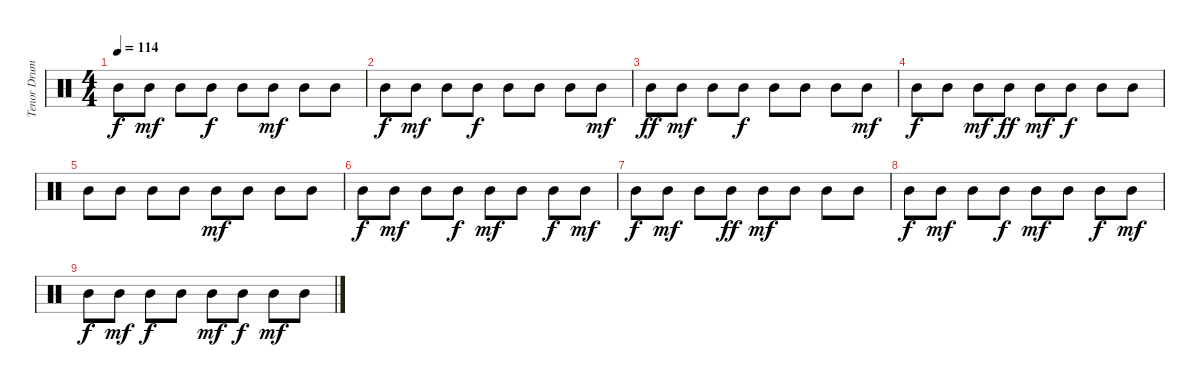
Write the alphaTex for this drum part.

\track ("Tenor Drum" "Tenor Drum") {instrument percussion}
\staff {score}
\articulation defaults
\ts (4 4)
\tempo 114
\clef neutral
\ks c "Mid Tom (hit)".8{dy f} "Mid Tom (hit)".8{dy mf} "Mid Tom (hit)".8 "Mid Tom (hit)".8{dy f} "Mid Tom (hit)".8 "Mid Tom (hit)".8{dy mf} "Mid Tom (hit)".8 "Mid Tom (hit)".8
|
"Mid Tom (hit)".8{dy f} "Mid Tom (hit)".8{dy mf} "Mid Tom (hit)".8 "Mid Tom (hit)".8{dy f} "Mid Tom (hit)".8 "Mid Tom (hit)".8 "Mid Tom (hit)".8 "Mid Tom (hit)".8{dy mf} |
"Mid Tom (hit)".8{dy ff} "Mid Tom (hit)".8{dy mf} "Mid Tom (hit)".8 "Mid Tom (hit)".8{dy f} "Mid Tom (hit)".8 "Mid Tom (hit)".8 "Mid Tom (hit)".8 "Mid Tom (hit)".8{dy mf} |
"Mid Tom (hit)".8{dy f} "Mid Tom (hit)".8 "Mid Tom (hit)".8{dy mf} "Mid Tom (hit)".8{dy ff} "Mid Tom (hit)".8{dy mf} "Mid Tom (hit)".8{dy f} "Mid Tom (hit)".8 "Mid Tom (hit)".8 |
"Mid Tom (hit)".8 "Mid Tom (hit)".8 "Mid Tom (hit)".8 "Mid Tom (hit)".8 "Mid Tom (hit)".8{dy mf} "Mid Tom (hit)".8 "Mid Tom (hit)".8 "Mid Tom (hit)".8 |
"Mid Tom (hit)".8{dy f} "Mid Tom (hit)".8{dy mf} "Mid Tom (hit)".8 "Mid Tom (hit)".8{dy f} "Mid Tom (hit)".8{dy mf} "Mid Tom (hit)".8 "Mid Tom (hit)".8{dy f} "Mid Tom (hit)".8{dy mf} |
"Mid Tom (hit)".8{dy f} "Mid Tom (hit)".8{dy mf} "Mid Tom (hit)".8 "Mid Tom (hit)".8{dy ff} "Mid Tom (hit)".8{dy mf} "Mid Tom (hit)".8 "Mid Tom (hit)".8 "Mid Tom (hit)".8 |
"Mid Tom (hit)".8{dy f} "Mid Tom (hit)".8{dy mf} "Mid Tom (hit)".8 "Mid Tom (hit)".8{dy f} "Mid Tom (hit)".8{dy mf} "Mid Tom (hit)".8 "Mid Tom (hit)".8{dy f} "Mid Tom (hit)".8{dy mf} |
"Mid Tom (hit)".8{dy f} "Mid Tom (hit)".8{dy mf} "Mid Tom (hit)".8{dy f} "Mid Tom (hit)".8 "Mid Tom (hit)".8{dy mf} "Mid Tom (hit)".8{dy f} "Mid Tom (hit)".8{dy mf} "Mid Tom (hit)".8
